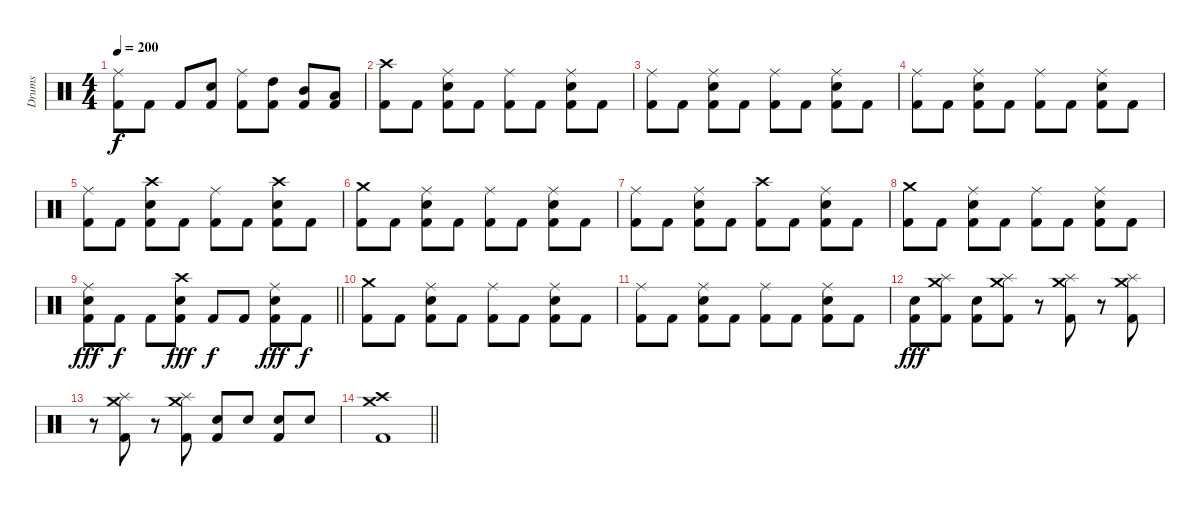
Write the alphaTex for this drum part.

\track ("Drums" "Drums") {instrument percussion}
\staff {score}
\articulation defaults
\ts (4 4)
\tempo 200
\clef neutral
\ks c
("Ride (middle)" "Kick (hit) 2").8{dy f} "Kick (hit) 2".8 "Kick (hit) 2".8 ("Snare (hit) 2" "Kick (hit) 2").8 ("Ride (middle)" "Kick (hit) 2").8 ("High Tom (hit)" "Kick (hit) 2").8 ("Mid Tom (hit)" "Kick (hit) 2").8 ("Low Tom (hit)" "Kick (hit) 2").8 |
("Crash high (hit)" "Kick (hit) 2").8 "Kick (hit) 2".8 ("Ride (middle)" "Snare (hit) 2" "Kick (hit) 2").8 "Kick (hit) 2".8 ("Ride (middle)" "Kick (hit) 2").8 "Kick (hit) 2".8 ("Ride (middle)" "Snare (hit) 2" "Kick (hit) 2").8 "Kick (hit) 2".8 |
("Ride (middle)" "Kick (hit) 2").8 "Kick (hit) 2".8 ("Ride (middle)" "Snare (hit) 2" "Kick (hit) 2").8 "Kick (hit) 2".8 ("Ride (middle)" "Kick (hit) 2").8 "Kick (hit) 2".8 ("Ride (middle)" "Snare (hit) 2" "Kick (hit) 2").8 "Kick (hit) 2".8 |
("Ride (middle)" "Kick (hit) 2").8 "Kick (hit) 2".8 ("Ride (middle)" "Snare (hit) 2" "Kick (hit) 2").8 "Kick (hit) 2".8 ("Ride (middle)" "Kick (hit) 2").8 "Kick (hit) 2".8 ("Ride (middle)" "Snare (hit) 2" "Kick (hit) 2").8 "Kick (hit) 2".8 |
("Ride (middle)" "Kick (hit) 2").8 "Kick (hit) 2".8 ("Crash high (hit)" "Snare (hit) 2" "Kick (hit) 2").8 "Kick (hit) 2".8 ("Ride (middle)" "Kick (hit) 2").8 "Kick (hit) 2".8 ("Crash high (hit)" "Snare (hit) 2" "Kick (hit) 2").8 "Kick (hit) 2".8 |
("Crash medium (hit)" "Kick (hit) 2").8 "Kick (hit) 2".8 ("Ride (middle)" "Snare (hit) 2" "Kick (hit) 2").8 "Kick (hit) 2".8 ("Ride (middle)" "Kick (hit) 2").8 "Kick (hit) 2".8 ("Ride (middle)" "Snare (hit) 2" "Kick (hit) 2").8 "Kick (hit) 2".8 |
("Ride (middle)" "Kick (hit) 2").8 "Kick (hit) 2".8 ("Ride (middle)" "Snare (hit) 2" "Kick (hit) 2").8 "Kick (hit) 2".8 ("Crash high (hit)" "Kick (hit) 2").8 "Kick (hit) 2".8 ("Ride (middle)" "Snare (hit) 2" "Kick (hit) 2").8 "Kick (hit) 2".8 |
("Crash medium (hit)" "Kick (hit) 2").8 "Kick (hit) 2".8 ("Ride (middle)" "Snare (hit) 2" "Kick (hit) 2").8 "Kick (hit) 2".8 ("Ride (middle)" "Kick (hit) 2").8 "Kick (hit) 2".8 ("Ride (middle)" "Snare (hit) 2" "Kick (hit) 2").8 "Kick (hit) 2".8 |
\barLineRight lightlight
("Ride (middle)" "Snare (hit) 2" "Kick (hit) 2").8{dy fff} "Kick (hit) 2".8{dy f} "Kick (hit) 2".8 ("Crash high (hit)" "Snare (hit) 2" "Kick (hit) 2").8{dy fff} "Kick (hit) 2".8{dy f} "Kick (hit) 2".8 ("Ride (middle)" "Snare (hit) 2" "Kick (hit) 2").8{dy fff} "Kick (hit) 2".8{dy f} |
\section ("" "")
("Crash medium (hit)" "Kick (hit) 2").8 "Kick (hit) 2".8 ("Ride (middle)" "Snare (hit) 2" "Kick (hit) 2").8 "Kick (hit) 2".8 ("Ride (middle)" "Kick (hit) 2").8 "Kick (hit) 2".8 ("Ride (middle)" "Snare (hit) 2" "Kick (hit) 2").8 "Kick (hit) 2".8 |
("Ride (middle)" "Kick (hit) 2").8 "Kick (hit) 2".8 ("Ride (middle)" "Snare (hit) 2" "Kick (hit) 2").8 "Kick (hit) 2".8 ("Ride (middle)" "Kick (hit) 2").8 "Kick (hit) 2".8 ("Ride (middle)" "Snare (hit) 2" "Kick (hit) 2").8 "Kick (hit) 2".8 |
("Snare (hit) 2" "Kick (hit) 2").8{dy fff} ("Crash medium (hit)" "Splash (hit)" "Kick (hit) 2").8 ("Snare (hit) 2" "Kick (hit) 2").8 ("Crash medium (hit)" "Splash (hit)" "Kick (hit) 2").8 r.8 ("Crash medium (hit)" "Splash (hit)" "Kick (hit) 2").8 r.8 ("Crash medium (hit)" "Splash (hit)" "Kick (hit) 2").8 |
r.8 ("Crash medium (hit)" "Splash (hit)" "Kick (hit) 2").8 r.8 ("Crash medium (hit)" "Splash (hit)" "Kick (hit) 2").8 ("Snare (hit) 2" "Kick (hit) 2").8 "Snare (hit) 2".8 ("Snare (hit) 2" "Kick (hit) 2").8 "Snare (hit) 2".8 |
\barLineRight lightlight
("Crash medium (hit)" "Crash high (hit)" "Kick (hit) 2").1
